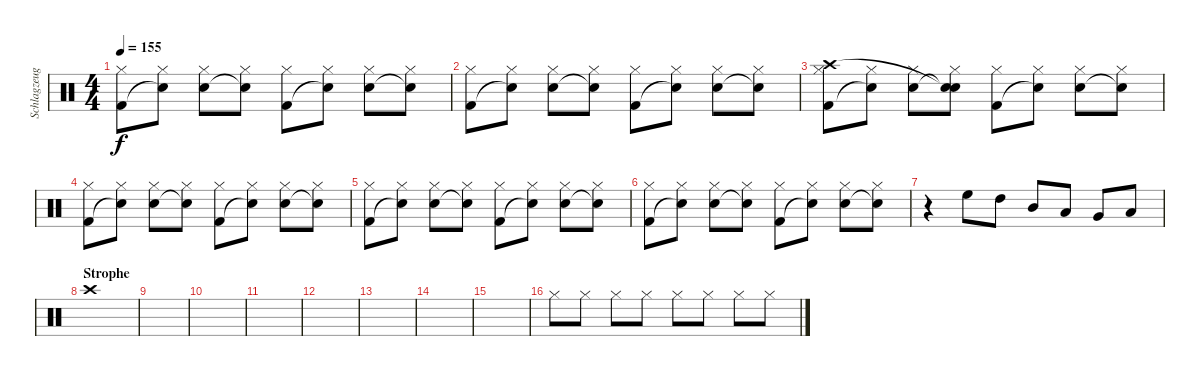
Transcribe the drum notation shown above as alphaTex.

\track ("Schlagzeug" "Schlagzeug") {instrument percussion}
\staff {score}
\articulation defaults
\ts (4 4)
\tempo 155
\clef neutral
\ks c
("Hi-Hat (closed)" "Kick (hit) 2").8{dy f} ("Hi-Hat (closed)" "Snare (hit) 2"{t}).8 ("Hi-Hat (closed)" "Snare (hit) 2").8 ("Hi-Hat (closed)" "Snare (hit)"{t}).8 ("Hi-Hat (closed)" "Kick (hit) 2").8 ("Hi-Hat (closed)" "Snare (hit)"{t}).8 ("Hi-Hat (closed)" "Snare (hit) 2").8 ("Hi-Hat (closed)" "Snare (hit)"{t}).8 |
("Hi-Hat (closed)" "Kick (hit) 2").8 ("Hi-Hat (closed)" "Snare (hit) 2"{t}).8 ("Hi-Hat (closed)" "Snare (hit) 2").8 ("Hi-Hat (closed)" "Snare (hit)"{t}).8 ("Hi-Hat (closed)" "Kick (hit) 2").8 ("Hi-Hat (closed)" "Snare (hit)"{t}).8 ("Hi-Hat (closed)" "Snare (hit) 2").8 ("Hi-Hat (closed)" "Snare (hit)"{t}).8 |
("Hi-Hat (closed)" "Kick (hit) 2" "Crash high (hit)").8 ("Hi-Hat (closed)" "Snare (hit) 2"{t}).8 ("Hi-Hat (closed)" "Snare (hit) 2").8 ("Hi-Hat (closed)" "Snare (hit)"{t} "Snare (hit)"{t}).8 ("Hi-Hat (closed)" "Kick (hit) 2").8 ("Hi-Hat (closed)" "Snare (hit)"{t}).8 ("Hi-Hat (closed)" "Snare (hit) 2").8 ("Hi-Hat (closed)" "Snare (hit)"{t}).8 |
("Hi-Hat (closed)" "Kick (hit) 2").8 ("Hi-Hat (closed)" "Snare (hit) 2"{t}).8 ("Hi-Hat (closed)" "Snare (hit) 2").8 ("Hi-Hat (closed)" "Snare (hit)"{t}).8 ("Hi-Hat (closed)" "Kick (hit) 2").8 ("Hi-Hat (closed)" "Snare (hit)"{t}).8 ("Hi-Hat (closed)" "Snare (hit) 2").8 ("Hi-Hat (closed)" "Snare (hit)"{t}).8 |
("Hi-Hat (closed)" "Kick (hit) 2").8 ("Hi-Hat (closed)" "Snare (hit) 2"{t}).8 ("Hi-Hat (closed)" "Snare (hit) 2").8 ("Hi-Hat (closed)" "Snare (hit)"{t}).8 ("Hi-Hat (closed)" "Kick (hit) 2").8 ("Hi-Hat (closed)" "Snare (hit)"{t}).8 ("Hi-Hat (closed)" "Snare (hit) 2").8 ("Hi-Hat (closed)" "Snare (hit)"{t}).8 |
("Hi-Hat (closed)" "Kick (hit) 2").8 ("Hi-Hat (closed)" "Snare (hit) 2"{t}).8 ("Hi-Hat (closed)" "Snare (hit) 2").8 ("Hi-Hat (closed)" "Snare (hit)"{t}).8 ("Hi-Hat (closed)" "Kick (hit) 2").8 ("Hi-Hat (closed)" "Snare (hit)"{t}).8 ("Hi-Hat (closed)" "Snare (hit) 2").8 ("Hi-Hat (closed)" "Snare (hit)"{t}).8 |
r.4 "High Floor Tom (hit)".8 "High Tom (hit)".8 "Mid Tom (hit)".8 "Low Tom (hit)".8 "Very Low Tom (hit)".8 "Low Floor Tom (hit)".8 |
\section ("" "Strophe")
"Crash high (hit)".1 |
|
|
|
|
|
|
|
"Hi-Hat (closed)".8 "Hi-Hat (closed)".8 "Hi-Hat (closed)".8 "Hi-Hat (closed)".8 "Hi-Hat (closed)".8 "Hi-Hat (closed)".8 "Hi-Hat (closed)".8 "Hi-Hat (closed)".8
